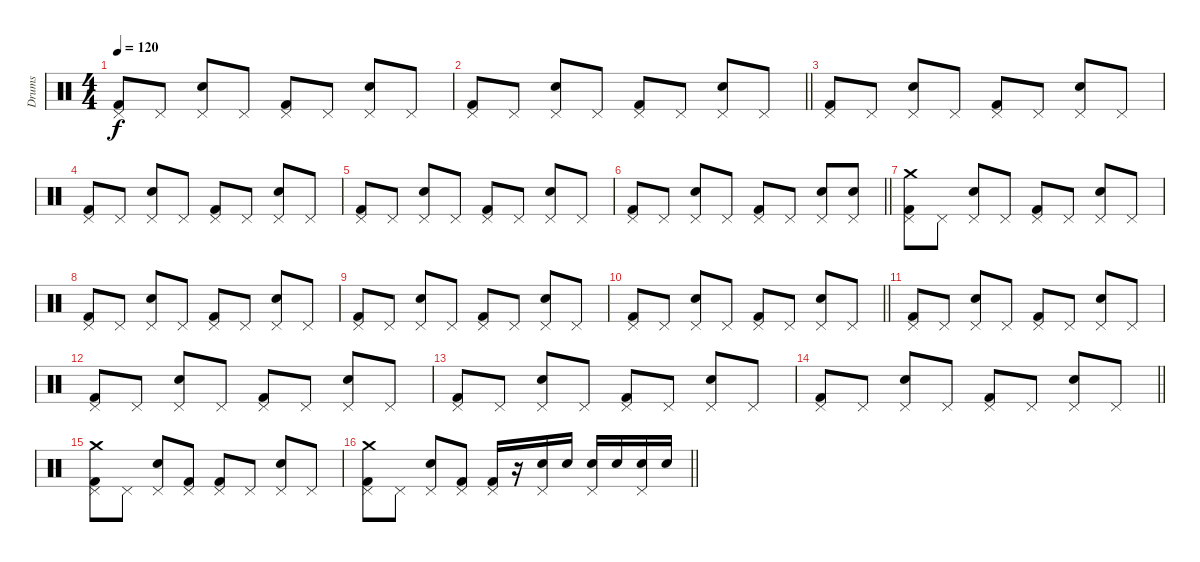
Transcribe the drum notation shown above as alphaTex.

\track ("Drums" "Drums") {instrument percussion}
\staff {score}
\articulation defaults
\ts (4 4)
\tempo 120
\clef neutral
\ks c
("Kick (hit) 2" "Pedal Hi-Hat (hit)").8{dy f} "Pedal Hi-Hat (hit)".8 ("Snare (hit) 2" "Pedal Hi-Hat (hit)").8 "Pedal Hi-Hat (hit)".8 ("Kick (hit) 2" "Pedal Hi-Hat (hit)").8 "Pedal Hi-Hat (hit)".8 ("Snare (hit) 2" "Pedal Hi-Hat (hit)").8 "Pedal Hi-Hat (hit)".8 |
\barLineRight lightlight
("Kick (hit) 2" "Pedal Hi-Hat (hit)").8 "Pedal Hi-Hat (hit)".8 ("Snare (hit) 2" "Pedal Hi-Hat (hit)").8 "Pedal Hi-Hat (hit)".8 ("Kick (hit) 2" "Pedal Hi-Hat (hit)").8 "Pedal Hi-Hat (hit)".8 ("Snare (hit) 2" "Pedal Hi-Hat (hit)").8 "Pedal Hi-Hat (hit)".8 |
("Kick (hit) 2" "Pedal Hi-Hat (hit)").8 "Pedal Hi-Hat (hit)".8 ("Snare (hit) 2" "Pedal Hi-Hat (hit)").8 "Pedal Hi-Hat (hit)".8 ("Kick (hit) 2" "Pedal Hi-Hat (hit)").8 "Pedal Hi-Hat (hit)".8 ("Snare (hit) 2" "Pedal Hi-Hat (hit)").8 "Pedal Hi-Hat (hit)".8 |
("Kick (hit) 2" "Pedal Hi-Hat (hit)").8 "Pedal Hi-Hat (hit)".8 ("Snare (hit) 2" "Pedal Hi-Hat (hit)").8 "Pedal Hi-Hat (hit)".8 ("Kick (hit) 2" "Pedal Hi-Hat (hit)").8 "Pedal Hi-Hat (hit)".8 ("Snare (hit) 2" "Pedal Hi-Hat (hit)").8 "Pedal Hi-Hat (hit)".8 |
("Kick (hit) 2" "Pedal Hi-Hat (hit)").8 "Pedal Hi-Hat (hit)".8 ("Snare (hit) 2" "Pedal Hi-Hat (hit)").8 "Pedal Hi-Hat (hit)".8 ("Kick (hit) 2" "Pedal Hi-Hat (hit)").8 "Pedal Hi-Hat (hit)".8 ("Snare (hit) 2" "Pedal Hi-Hat (hit)").8 "Pedal Hi-Hat (hit)".8 |
\barLineRight lightlight
("Kick (hit) 2" "Pedal Hi-Hat (hit)").8 "Pedal Hi-Hat (hit)".8 ("Snare (hit) 2" "Pedal Hi-Hat (hit)").8 "Pedal Hi-Hat (hit)".8 ("Kick (hit) 2" "Pedal Hi-Hat (hit)").8 "Pedal Hi-Hat (hit)".8 ("Snare (hit) 2" "Pedal Hi-Hat (hit)").8 ("Snare (hit) 2" "Pedal Hi-Hat (hit)").8 |
("Kick (hit) 2" "Pedal Hi-Hat (hit)" "Crash medium (hit)").8 "Pedal Hi-Hat (hit)".8 ("Snare (hit) 2" "Pedal Hi-Hat (hit)").8 "Pedal Hi-Hat (hit)".8 ("Kick (hit) 2" "Pedal Hi-Hat (hit)").8 "Pedal Hi-Hat (hit)".8 ("Snare (hit) 2" "Pedal Hi-Hat (hit)").8 "Pedal Hi-Hat (hit)".8 |
("Kick (hit) 2" "Pedal Hi-Hat (hit)").8 "Pedal Hi-Hat (hit)".8 ("Snare (hit) 2" "Pedal Hi-Hat (hit)").8 "Pedal Hi-Hat (hit)".8 ("Kick (hit) 2" "Pedal Hi-Hat (hit)").8 "Pedal Hi-Hat (hit)".8 ("Snare (hit) 2" "Pedal Hi-Hat (hit)").8 "Pedal Hi-Hat (hit)".8 |
("Kick (hit) 2" "Pedal Hi-Hat (hit)").8 "Pedal Hi-Hat (hit)".8 ("Snare (hit) 2" "Pedal Hi-Hat (hit)").8 "Pedal Hi-Hat (hit)".8 ("Kick (hit) 2" "Pedal Hi-Hat (hit)").8 "Pedal Hi-Hat (hit)".8 ("Snare (hit) 2" "Pedal Hi-Hat (hit)").8 "Pedal Hi-Hat (hit)".8 |
\barLineRight lightlight
("Kick (hit) 2" "Pedal Hi-Hat (hit)").8 "Pedal Hi-Hat (hit)".8 ("Snare (hit) 2" "Pedal Hi-Hat (hit)").8 "Pedal Hi-Hat (hit)".8 ("Kick (hit) 2" "Pedal Hi-Hat (hit)").8 "Pedal Hi-Hat (hit)".8 ("Snare (hit) 2" "Pedal Hi-Hat (hit)").8 "Pedal Hi-Hat (hit)".8 |
("Kick (hit) 2" "Pedal Hi-Hat (hit)").8 "Pedal Hi-Hat (hit)".8 ("Snare (hit) 2" "Pedal Hi-Hat (hit)").8 "Pedal Hi-Hat (hit)".8 ("Kick (hit) 2" "Pedal Hi-Hat (hit)").8 "Pedal Hi-Hat (hit)".8 ("Snare (hit) 2" "Pedal Hi-Hat (hit)").8 "Pedal Hi-Hat (hit)".8 |
("Kick (hit) 2" "Pedal Hi-Hat (hit)").8 "Pedal Hi-Hat (hit)".8 ("Snare (hit) 2" "Pedal Hi-Hat (hit)").8 "Pedal Hi-Hat (hit)".8 ("Kick (hit) 2" "Pedal Hi-Hat (hit)").8 "Pedal Hi-Hat (hit)".8 ("Snare (hit) 2" "Pedal Hi-Hat (hit)").8 "Pedal Hi-Hat (hit)".8 |
("Kick (hit) 2" "Pedal Hi-Hat (hit)").8 "Pedal Hi-Hat (hit)".8 ("Snare (hit) 2" "Pedal Hi-Hat (hit)").8 "Pedal Hi-Hat (hit)".8 ("Kick (hit) 2" "Pedal Hi-Hat (hit)").8 "Pedal Hi-Hat (hit)".8 ("Snare (hit) 2" "Pedal Hi-Hat (hit)").8 "Pedal Hi-Hat (hit)".8 |
\barLineRight lightlight
("Kick (hit) 2" "Pedal Hi-Hat (hit)").8 "Pedal Hi-Hat (hit)".8 ("Snare (hit) 2" "Pedal Hi-Hat (hit)").8 "Pedal Hi-Hat (hit)".8 ("Kick (hit) 2" "Pedal Hi-Hat (hit)").8 "Pedal Hi-Hat (hit)".8 ("Snare (hit) 2" "Pedal Hi-Hat (hit)").8 "Pedal Hi-Hat (hit)".8 |
("Kick (hit) 2" "Pedal Hi-Hat (hit)" "Crash medium (hit)").8 "Pedal Hi-Hat (hit)".8 ("Snare (hit) 2" "Pedal Hi-Hat (hit)").8 ("Kick (hit) 2" "Pedal Hi-Hat (hit)").8 ("Kick (hit) 2" "Pedal Hi-Hat (hit)").8 "Pedal Hi-Hat (hit)".8 ("Snare (hit) 2" "Pedal Hi-Hat (hit)").8 "Pedal Hi-Hat (hit)".8 |
\barLineRight lightlight
("Kick (hit) 2" "Pedal Hi-Hat (hit)" "Crash medium (hit)").8 "Pedal Hi-Hat (hit)".8 ("Snare (hit) 2" "Pedal Hi-Hat (hit)").8 ("Kick (hit) 2" "Pedal Hi-Hat (hit)").8 ("Kick (hit) 2" "Pedal Hi-Hat (hit)").16 r.16 ("Snare (hit) 2" "Pedal Hi-Hat (hit)").16 "Snare (hit) 2".16 ("Snare (hit) 2" "Pedal Hi-Hat (hit)").16 "Snare (hit) 2".16 ("Snare (hit) 2" "Pedal Hi-Hat (hit)").16 "Snare (hit) 2".16
